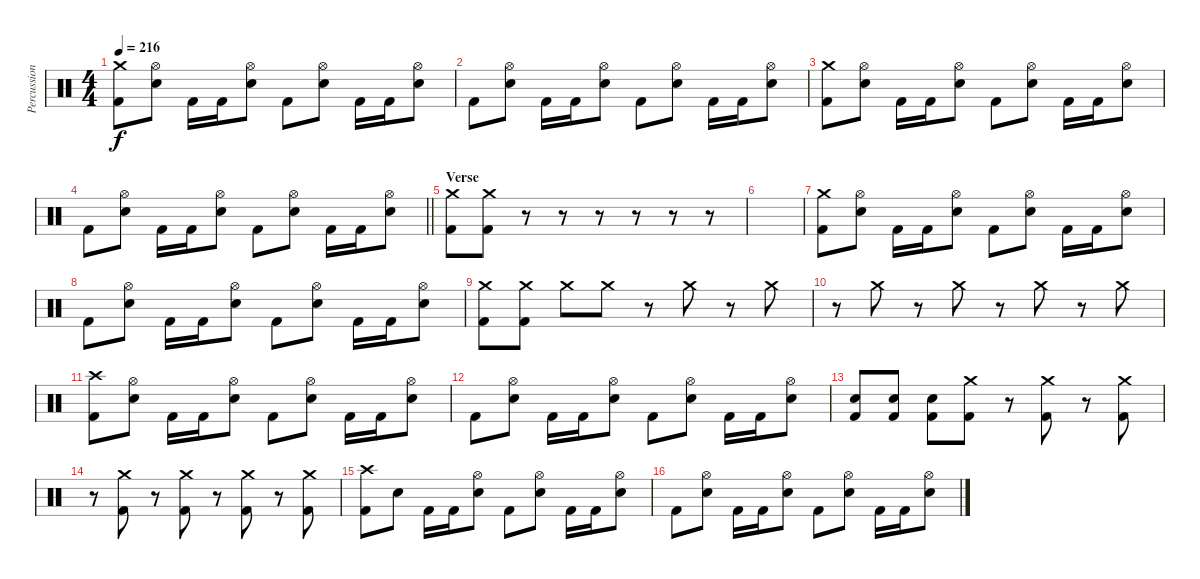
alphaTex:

\track ("Percussions" "Percussion") {instrument percussion}
\staff {score}
\articulation defaults
\ts (4 4)
\tempo 216
\clef neutral
\ks c
("Crash medium (hit)" "Kick (hit) 2").8{dy f} ("Hi-Hat (open)" "Electric Snare (hit)").8 "Kick (hit) 2".16 "Kick (hit) 2".16 ("Hi-Hat (open)" "Electric Snare (hit)").8 "Kick (hit) 2".8 ("Hi-Hat (open)" "Electric Snare (hit)").8 "Kick (hit) 2".16 "Kick (hit) 2".16 ("Hi-Hat (open)" "Electric Snare (hit)").8 |
"Kick (hit) 2".8 ("Hi-Hat (open)" "Electric Snare (hit)").8 "Kick (hit) 2".16 "Kick (hit) 2".16 ("Hi-Hat (open)" "Electric Snare (hit)").8 "Kick (hit) 2".8 ("Hi-Hat (open)" "Electric Snare (hit)").8 "Kick (hit) 2".16 "Kick (hit) 2".16 ("Hi-Hat (open)" "Electric Snare (hit)").8 |
("Crash medium (hit)" "Kick (hit) 2").8 ("Hi-Hat (open)" "Electric Snare (hit)").8 "Kick (hit) 2".16 "Kick (hit) 2".16 ("Hi-Hat (open)" "Electric Snare (hit)").8 "Kick (hit) 2".8 ("Hi-Hat (open)" "Electric Snare (hit)").8 "Kick (hit) 2".16 "Kick (hit) 2".16 ("Hi-Hat (open)" "Electric Snare (hit)").8 |
\barLineRight lightlight "Kick (hit) 2".8
("Hi-Hat (open)" "Electric Snare (hit)").8 "Kick (hit) 2".16 "Kick (hit) 2".16 ("Hi-Hat (open)" "Electric Snare (hit)").8 "Kick (hit) 2".8 ("Hi-Hat (open)" "Electric Snare (hit)").8 "Kick (hit) 2".16 "Kick (hit) 2".16 ("Hi-Hat (open)" "Electric Snare (hit)").8 |
\section ("" "Verse")
("Crash medium (hit)" "Kick (hit) 2").8 ("Crash medium (hit)" "Kick (hit) 2").8 r.8 r.8 r.8 r.8 r.8 r.8 |
|
("Crash medium (hit)" "Kick (hit) 2").8 ("Hi-Hat (open)" "Electric Snare (hit)").8 "Kick (hit) 2".16 "Kick (hit) 2".16 ("Hi-Hat (open)" "Electric Snare (hit)").8 "Kick (hit) 2".8 ("Hi-Hat (open)" "Electric Snare (hit)").8 "Kick (hit) 2".16 "Kick (hit) 2".16 ("Hi-Hat (open)" "Electric Snare (hit)").8 |
"Kick (hit) 2".8 ("Hi-Hat (open)" "Electric Snare (hit)").8 "Kick (hit) 2".16 "Kick (hit) 2".16 ("Hi-Hat (open)" "Electric Snare (hit)").8 "Kick (hit) 2".8 ("Hi-Hat (open)" "Electric Snare (hit)").8 "Kick (hit) 2".16 "Kick (hit) 2".16 ("Hi-Hat (open)" "Electric Snare (hit)").8 |
("Crash medium (hit)" "Kick (hit) 2").8 ("Crash medium (hit)" "Kick (hit) 2").8 "Crash medium (hit)".8 "Crash medium (hit)".8 r.8 "Crash medium (hit)".8 r.8 "Crash medium (hit)".8 |
r.8 "Crash medium (hit)".8 r.8 "Crash medium (hit)".8 r.8 "Crash medium (hit)".8 r.8 "Crash medium (hit)".8 |
("Crash high (hit)" "Kick (hit) 2").8 ("Hi-Hat (open)" "Electric Snare (hit)").8 "Kick (hit) 2".16 "Kick (hit) 2".16 ("Hi-Hat (open)" "Electric Snare (hit)").8 "Kick (hit) 2".8 ("Hi-Hat (open)" "Electric Snare (hit)").8 "Kick (hit) 2".16 "Kick (hit) 2".16 ("Hi-Hat (open)" "Electric Snare (hit)").8 |
"Kick (hit) 2".8 ("Hi-Hat (open)" "Electric Snare (hit)").8 "Kick (hit) 2".16 "Kick (hit) 2".16 ("Hi-Hat (open)" "Electric Snare (hit)").8 "Kick (hit) 2".8 ("Hi-Hat (open)" "Electric Snare (hit)").8 "Kick (hit) 2".16 "Kick (hit) 2".16 ("Hi-Hat (open)" "Electric Snare (hit)").8 |
("Electric Snare (hit)" "Kick (hit) 2").8 ("Electric Snare (hit)" "Kick (hit) 2").8 ("Electric Snare (hit)" "Kick (hit) 2").8 ("Crash medium (hit)" "Kick (hit) 2").8 r.8 ("Crash medium (hit)" "Kick (hit) 2").8 r.8 ("Crash medium (hit)" "Kick (hit) 2").8 |
r.8 ("Crash medium (hit)" "Kick (hit) 2").8 r.8 ("Crash medium (hit)" "Kick (hit) 2").8 r.8 ("Crash medium (hit)" "Kick (hit) 2").8 r.8 ("Crash medium (hit)" "Kick (hit) 2").8 |
("Crash high (hit)" "Kick (hit) 2").8 "Electric Snare (hit)".8 "Kick (hit) 2".16 "Kick (hit) 2".16 ("Hi-Hat (open)" "Electric Snare (hit)").8 "Kick (hit) 2".8 ("Hi-Hat (open)" "Electric Snare (hit)").8 "Kick (hit) 2".16 "Kick (hit) 2".16 ("Hi-Hat (open)" "Electric Snare (hit)").8 |
"Kick (hit) 2".8 ("Hi-Hat (open)" "Electric Snare (hit)").8 "Kick (hit) 2".16 "Kick (hit) 2".16 ("Hi-Hat (open)" "Electric Snare (hit)").8 "Kick (hit) 2".8 ("Hi-Hat (open)" "Electric Snare (hit)").8 "Kick (hit) 2".16 "Kick (hit) 2".16 ("Hi-Hat (open)" "Electric Snare (hit)").8
